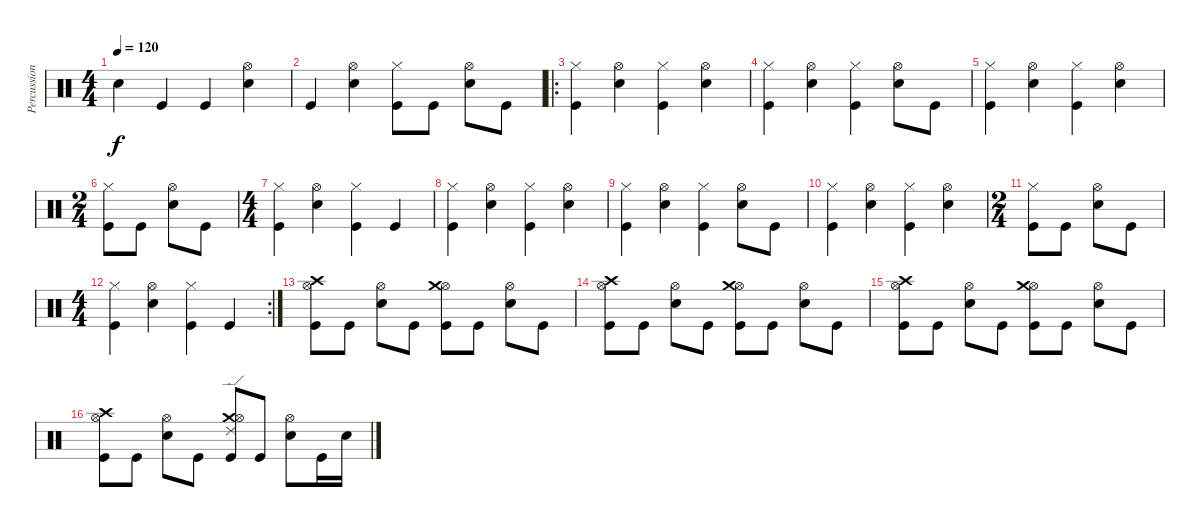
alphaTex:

\track ("Percussions" "Percussion") {instrument percussion}
\staff {score}
\articulation defaults
\ts (4 4)
\tempo 120
\clef neutral
\ks c "Snare (hit) 2".4{dy f} "Kick (hit)".4 "Kick (hit)".4
("Snare (hit) 2" "Hi-Hat (open)").4 |
"Kick (hit)".4 ("Snare (hit) 2" "Hi-Hat (open)").4 ("Kick (hit)" "Hi-Hat (closed)").8 "Kick (hit)".8 ("Snare (hit) 2" "Hi-Hat (open)").8 "Kick (hit)".8 |
\ro
("Hi-Hat (closed)" "Kick (hit)").4 ("Snare (hit) 2" "Hi-Hat (open)").4 ("Hi-Hat (closed)" "Kick (hit)").4 ("Snare (hit) 2" "Hi-Hat (open)").4 |
("Hi-Hat (closed)" "Kick (hit)").4 ("Snare (hit) 2" "Hi-Hat (open)").4 ("Kick (hit)" "Hi-Hat (closed)").4 ("Snare (hit) 2" "Hi-Hat (open)").8 "Kick (hit)".8 |
("Hi-Hat (closed)" "Kick (hit)").4 ("Snare (hit) 2" "Hi-Hat (open)").4 ("Hi-Hat (closed)" "Kick (hit)").4 ("Snare (hit) 2" "Hi-Hat (open)").4 |
\ts (2 4)
("Kick (hit)" "Hi-Hat (closed)").8 "Kick (hit)".8 ("Snare (hit) 2" "Hi-Hat (open)").8 "Kick (hit)".8 |
\ts (4 4)
("Kick (hit)" "Hi-Hat (closed)").4 ("Snare (hit) 2" "Hi-Hat (open)").4 ("Kick (hit)" "Hi-Hat (closed)").4 "Kick (hit)".4 |
("Hi-Hat (closed)" "Kick (hit)").4 ("Snare (hit) 2" "Hi-Hat (open)").4 ("Hi-Hat (closed)" "Kick (hit)").4 ("Snare (hit) 2" "Hi-Hat (open)").4 |
("Hi-Hat (closed)" "Kick (hit)").4 ("Snare (hit) 2" "Hi-Hat (open)").4 ("Kick (hit)" "Hi-Hat (closed)").4 ("Snare (hit) 2" "Hi-Hat (open)").8 "Kick (hit)".8 |
("Hi-Hat (closed)" "Kick (hit)").4 ("Snare (hit) 2" "Hi-Hat (open)").4 ("Hi-Hat (closed)" "Kick (hit)").4 ("Snare (hit) 2" "Hi-Hat (open)").4 |
\ts (2 4)
("Kick (hit)" "Hi-Hat (closed)").8 "Kick (hit)".8 ("Snare (hit) 2" "Hi-Hat (open)").8 "Kick (hit)".8 |
\rc 2
\ts (4 4)
("Kick (hit)" "Hi-Hat (closed)").4 ("Snare (hit) 2" "Hi-Hat (open)").4 ("Kick (hit)" "Hi-Hat (closed)").4 "Kick (hit)".4 |
("Crash high (hit)" "Kick (hit)" "Hi-Hat (open)").8 "Kick (hit)".8 ("Snare (hit) 2" "Hi-Hat (open)").8 "Kick (hit)".8 ("Hi-Hat (open)" "Crash medium (hit)" "Kick (hit)").8 "Kick (hit)".8 ("Snare (hit) 2" "Hi-Hat (open)").8 "Kick (hit)".8 |
("Crash high (hit)" "Kick (hit)" "Hi-Hat (open)").8 "Kick (hit)".8 ("Snare (hit) 2" "Hi-Hat (open)").8 "Kick (hit)".8 ("Hi-Hat (open)" "Crash medium (hit)" "Kick (hit)").8 "Kick (hit)".8 ("Snare (hit) 2" "Hi-Hat (open)").8 "Kick (hit)".8 |
("Crash high (hit)" "Kick (hit)" "Hi-Hat (open)").8 "Kick (hit)".8 ("Snare (hit) 2" "Hi-Hat (open)").8 "Kick (hit)".8 ("Hi-Hat (open)" "Crash medium (hit)" "Kick (hit)").8 "Kick (hit)".8 ("Snare (hit) 2" "Hi-Hat (open)").8 "Kick (hit)".8 |
("Hi-Hat (open)" "Crash high (hit)" "Kick (hit)").8 "Kick (hit)".8 ("Snare (hit) 2" "Hi-Hat (open)").8 "Kick (hit)".8 ("Kick (hit)" "Crash medium (hit)" "Ride (edge) 2" "Hi-Hat (open)").8 "Kick (hit)".8 ("Snare (hit) 2" "Hi-Hat (open)").8 "Kick (hit)".16 "Snare (hit) 2".16
